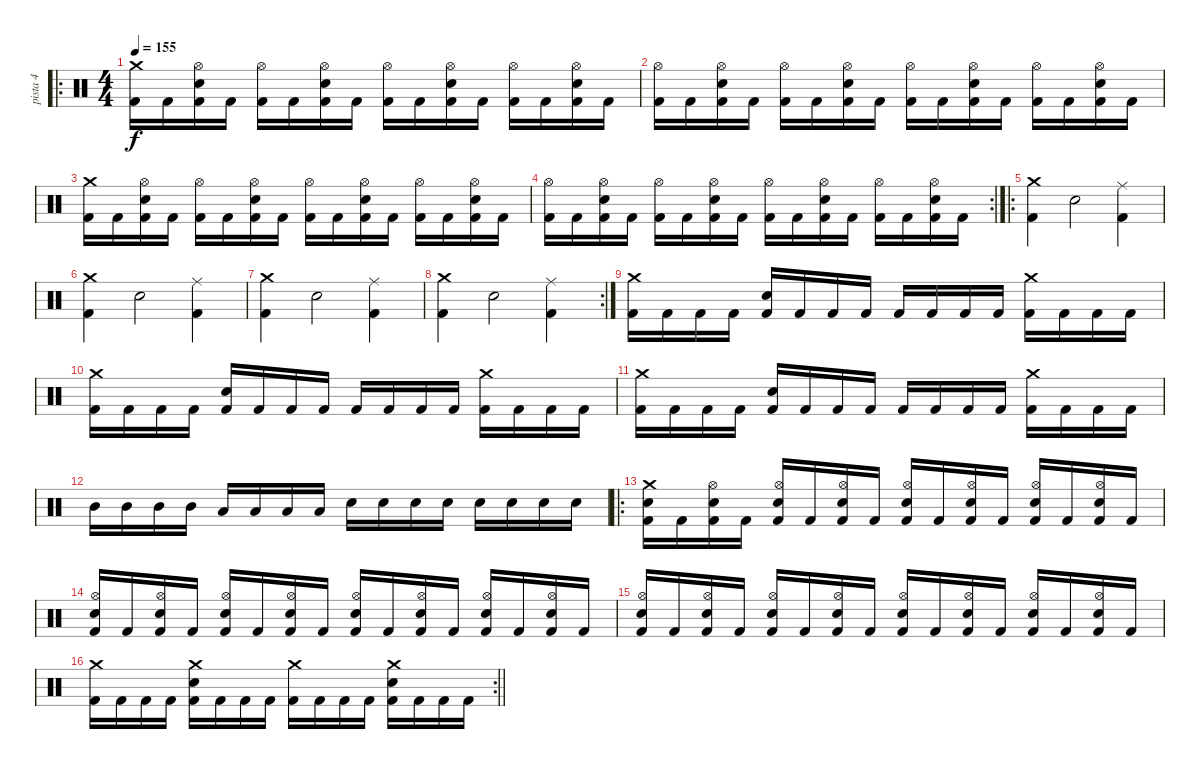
\track ("pista 4" "pista 4") {instrument percussion}
\staff {score}
\articulation defaults
\ro
\ts (4 4)
\tempo 155
\clef neutral
\ks c
("Crash medium (hit)" "Kick (hit) 2").16{dy f} "Kick (hit) 2".16 ("Hi-Hat (open)" "Snare (hit) 2" "Kick (hit) 2").16 "Kick (hit) 2".16 ("Hi-Hat (open)" "Kick (hit) 2").16 "Kick (hit) 2".16 ("Hi-Hat (open)" "Snare (hit) 2" "Kick (hit) 2").16 "Kick (hit) 2".16 ("Hi-Hat (open)" "Kick (hit) 2").16 "Kick (hit) 2".16 ("Hi-Hat (open)" "Snare (hit) 2" "Kick (hit) 2").16 "Kick (hit) 2".16 ("Hi-Hat (open)" "Kick (hit) 2").16 "Kick (hit) 2".16 ("Hi-Hat (open)" "Snare (hit) 2" "Kick (hit) 2").16 "Kick (hit) 2".16 |
("Hi-Hat (open)" "Kick (hit) 2").16 "Kick (hit) 2".16 ("Hi-Hat (open)" "Snare (hit) 2" "Kick (hit) 2").16 "Kick (hit) 2".16 ("Hi-Hat (open)" "Kick (hit) 2").16 "Kick (hit) 2".16 ("Hi-Hat (open)" "Snare (hit) 2" "Kick (hit) 2").16 "Kick (hit) 2".16 ("Hi-Hat (open)" "Kick (hit) 2").16 "Kick (hit) 2".16 ("Hi-Hat (open)" "Snare (hit) 2" "Kick (hit) 2").16 "Kick (hit) 2".16 ("Hi-Hat (open)" "Kick (hit) 2").16 "Kick (hit) 2".16 ("Hi-Hat (open)" "Snare (hit) 2" "Kick (hit) 2").16 "Kick (hit) 2".16 |
("Crash medium (hit)" "Kick (hit) 2").16 "Kick (hit) 2".16 ("Hi-Hat (open)" "Snare (hit) 2" "Kick (hit) 2").16 "Kick (hit) 2".16 ("Hi-Hat (open)" "Kick (hit) 2").16 "Kick (hit) 2".16 ("Hi-Hat (open)" "Snare (hit) 2" "Kick (hit) 2").16 "Kick (hit) 2".16 ("Hi-Hat (open)" "Kick (hit) 2").16 "Kick (hit) 2".16 ("Hi-Hat (open)" "Snare (hit) 2" "Kick (hit) 2").16 "Kick (hit) 2".16 ("Hi-Hat (open)" "Kick (hit) 2").16 "Kick (hit) 2".16 ("Hi-Hat (open)" "Snare (hit) 2" "Kick (hit) 2").16 "Kick (hit) 2".16 |
\rc 2
("Hi-Hat (open)" "Kick (hit) 2").16 "Kick (hit) 2".16 ("Hi-Hat (open)" "Snare (hit) 2" "Kick (hit) 2").16 "Kick (hit) 2".16 ("Hi-Hat (open)" "Kick (hit) 2").16 "Kick (hit) 2".16 ("Hi-Hat (open)" "Snare (hit) 2" "Kick (hit) 2").16 "Kick (hit) 2".16 ("Hi-Hat (open)" "Kick (hit) 2").16 "Kick (hit) 2".16 ("Hi-Hat (open)" "Snare (hit) 2" "Kick (hit) 2").16 "Kick (hit) 2".16 ("Hi-Hat (open)" "Kick (hit) 2").16 "Kick (hit) 2".16 ("Hi-Hat (open)" "Snare (hit) 2" "Kick (hit) 2").16 "Kick (hit) 2".16 |
\ro
("Crash medium (hit)" "Kick (hit) 2").4 "Snare (hit) 2".2 ("Ride (middle)" "Kick (hit) 2").4 |
("Crash medium (hit)" "Kick (hit) 2").4 "Snare (hit) 2".2 ("Ride (middle)" "Kick (hit) 2").4 |
("Crash medium (hit)" "Kick (hit) 2").4 "Snare (hit) 2".2 ("Ride (middle)" "Kick (hit) 2").4 |
\rc 2
("Crash medium (hit)" "Kick (hit) 2").4 "Snare (hit) 2".2 ("Ride (middle)" "Kick (hit) 2").4 |
("Crash medium (hit)" "Kick (hit) 2").16 "Kick (hit) 2".16 "Kick (hit) 2".16 "Kick (hit) 2".16 ("Snare (hit) 2" "Kick (hit) 2").16 "Kick (hit) 2".16 "Kick (hit) 2".16 "Kick (hit) 2".16 "Kick (hit) 2".16 "Kick (hit) 2".16 "Kick (hit) 2".16 "Kick (hit) 2".16 ("Crash medium (hit)" "Kick (hit) 2").16 "Kick (hit) 2".16 "Kick (hit) 2".16 "Kick (hit) 2".16 |
("Crash medium (hit)" "Kick (hit) 2").16 "Kick (hit) 2".16 "Kick (hit) 2".16 "Kick (hit) 2".16 ("Snare (hit) 2" "Kick (hit) 2").16 "Kick (hit) 2".16 "Kick (hit) 2".16 "Kick (hit) 2".16 "Kick (hit) 2".16 "Kick (hit) 2".16 "Kick (hit) 2".16 "Kick (hit) 2".16 ("Crash medium (hit)" "Kick (hit) 2").16 "Kick (hit) 2".16 "Kick (hit) 2".16 "Kick (hit) 2".16 |
("Crash medium (hit)" "Kick (hit) 2").16 "Kick (hit) 2".16 "Kick (hit) 2".16 "Kick (hit) 2".16 ("Snare (hit) 2" "Kick (hit) 2").16 "Kick (hit) 2".16 "Kick (hit) 2".16 "Kick (hit) 2".16 "Kick (hit) 2".16 "Kick (hit) 2".16 "Kick (hit) 2".16 "Kick (hit) 2".16 ("Crash medium (hit)" "Kick (hit) 2").16 "Kick (hit) 2".16 "Kick (hit) 2".16 "Kick (hit) 2".16 |
"Mid Tom (hit)".16 "Mid Tom (hit)".16 "Mid Tom (hit)".16 "Mid Tom (hit)".16 "Low Tom (hit)".16 "Low Tom (hit)".16 "Low Tom (hit)".16 "Low Tom (hit)".16 "Snare (hit) 2".16 "Snare (hit) 2".16 "Snare (hit) 2".16 "Snare (hit) 2".16 "Snare (hit) 2".16 "Snare (hit) 2".16 "Snare (hit) 2".16 "Snare (hit) 2".16 |
\ro
("Crash medium (hit)" "Snare (hit) 2" "Kick (hit) 2").16 "Kick (hit) 2".16 ("Hi-Hat (open)" "Snare (hit) 2" "Kick (hit) 2").16 "Kick (hit) 2".16 ("Hi-Hat (open)" "Snare (hit) 2" "Kick (hit) 2").16 "Kick (hit) 2".16 ("Hi-Hat (open)" "Snare (hit) 2" "Kick (hit) 2").16 "Kick (hit) 2".16 ("Hi-Hat (open)" "Snare (hit) 2" "Kick (hit) 2").16 "Kick (hit) 2".16 ("Hi-Hat (open)" "Snare (hit) 2" "Kick (hit) 2").16 "Kick (hit) 2".16 ("Hi-Hat (open)" "Snare (hit) 2" "Kick (hit) 2").16 "Kick (hit) 2".16 ("Hi-Hat (open)" "Snare (hit) 2" "Kick (hit) 2").16 "Kick (hit) 2".16 |
("Hi-Hat (open)" "Snare (hit) 2" "Kick (hit) 2").16 "Kick (hit) 2".16 ("Hi-Hat (open)" "Snare (hit) 2" "Kick (hit) 2").16 "Kick (hit) 2".16 ("Hi-Hat (open)" "Snare (hit) 2" "Kick (hit) 2").16 "Kick (hit) 2".16 ("Hi-Hat (open)" "Snare (hit) 2" "Kick (hit) 2").16 "Kick (hit) 2".16 ("Hi-Hat (open)" "Snare (hit) 2" "Kick (hit) 2").16 "Kick (hit) 2".16 ("Hi-Hat (open)" "Snare (hit) 2" "Kick (hit) 2").16 "Kick (hit) 2".16 ("Hi-Hat (open)" "Snare (hit) 2" "Kick (hit) 2").16 "Kick (hit) 2".16 ("Hi-Hat (open)" "Snare (hit) 2" "Kick (hit) 2").16 "Kick (hit) 2".16 |
("Hi-Hat (open)" "Snare (hit) 2" "Kick (hit) 2").16 "Kick (hit) 2".16 ("Hi-Hat (open)" "Snare (hit) 2" "Kick (hit) 2").16 "Kick (hit) 2".16 ("Hi-Hat (open)" "Snare (hit) 2" "Kick (hit) 2").16 "Kick (hit) 2".16 ("Hi-Hat (open)" "Snare (hit) 2" "Kick (hit) 2").16 "Kick (hit) 2".16 ("Hi-Hat (open)" "Snare (hit) 2" "Kick (hit) 2").16 "Kick (hit) 2".16 ("Hi-Hat (open)" "Snare (hit) 2" "Kick (hit) 2").16 "Kick (hit) 2".16 ("Hi-Hat (open)" "Snare (hit) 2" "Kick (hit) 2").16 "Kick (hit) 2".16 ("Hi-Hat (open)" "Snare (hit) 2" "Kick (hit) 2").16 "Kick (hit) 2".16 |
\rc 2
\barLineRight lightlight
("Crash medium (hit)" "Kick (hit) 2").16 "Kick (hit) 2".16 "Kick (hit) 2".16 "Kick (hit) 2".16 ("Crash medium (hit)" "Snare (hit) 2" "Kick (hit) 2").16 "Kick (hit) 2".16 "Kick (hit) 2".16 "Kick (hit) 2".16 ("Crash medium (hit)" "Kick (hit) 2").16 "Kick (hit) 2".16 "Kick (hit) 2".16 "Kick (hit) 2".16 ("Crash medium (hit)" "Snare (hit) 2" "Kick (hit) 2").16 "Kick (hit) 2".16 "Kick (hit) 2".16 "Kick (hit) 2".16
